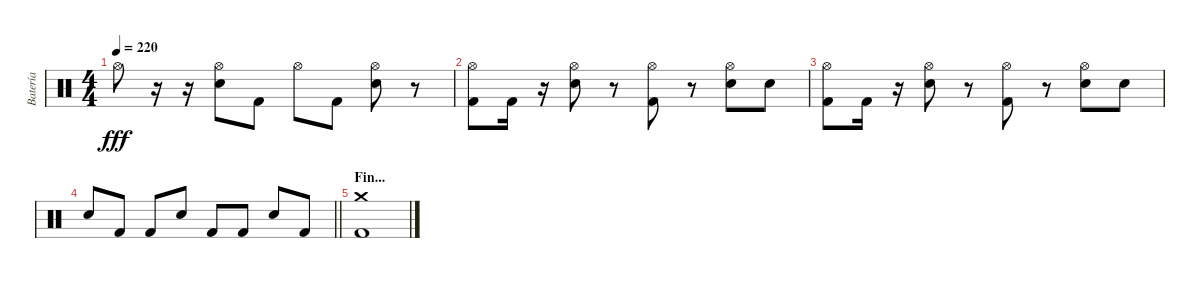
\track ("Batería" "Batería") {instrument percussion}
\staff {score}
\articulation defaults
\ts (4 4)
\tempo 220
\clef neutral
\ks c "Hi-Hat (open)".8{dy fff}
r.16 r.16 ("Hi-Hat (open)" "Snare (hit) 2").8 "Kick (hit) 2".8 "Hi-Hat (open)".8 "Kick (hit) 2".8 ("Hi-Hat (open)" "Snare (hit) 2").8 r.8 |
("Hi-Hat (open)" "Kick (hit) 2").8 "Kick (hit) 2".16 r.16 ("Hi-Hat (open)" "Snare (hit) 2").8 r.8 ("Hi-Hat (open)" "Kick (hit) 2").8 r.8 ("Hi-Hat (open)" "Snare (hit) 2").8 "Snare (hit) 2".8 |
("Hi-Hat (open)" "Kick (hit) 2").8 "Kick (hit) 2".16 r.16 ("Hi-Hat (open)" "Snare (hit) 2").8 r.8 ("Hi-Hat (open)" "Kick (hit) 2").8 r.8 ("Hi-Hat (open)" "Snare (hit) 2").8 "Snare (hit) 2".8 |
\barLineRight lightlight "Snare (hit) 2".8 "Kick (hit) 2".8 "Kick (hit) 2".8 "Snare (hit) 2".8 "Kick (hit) 2".8 "Kick (hit) 2".8 "Snare (hit) 2".8 "Kick (hit) 2".8
|
\section ("" "Fin...")
("Crash medium (hit)" "Kick (hit) 2").1
